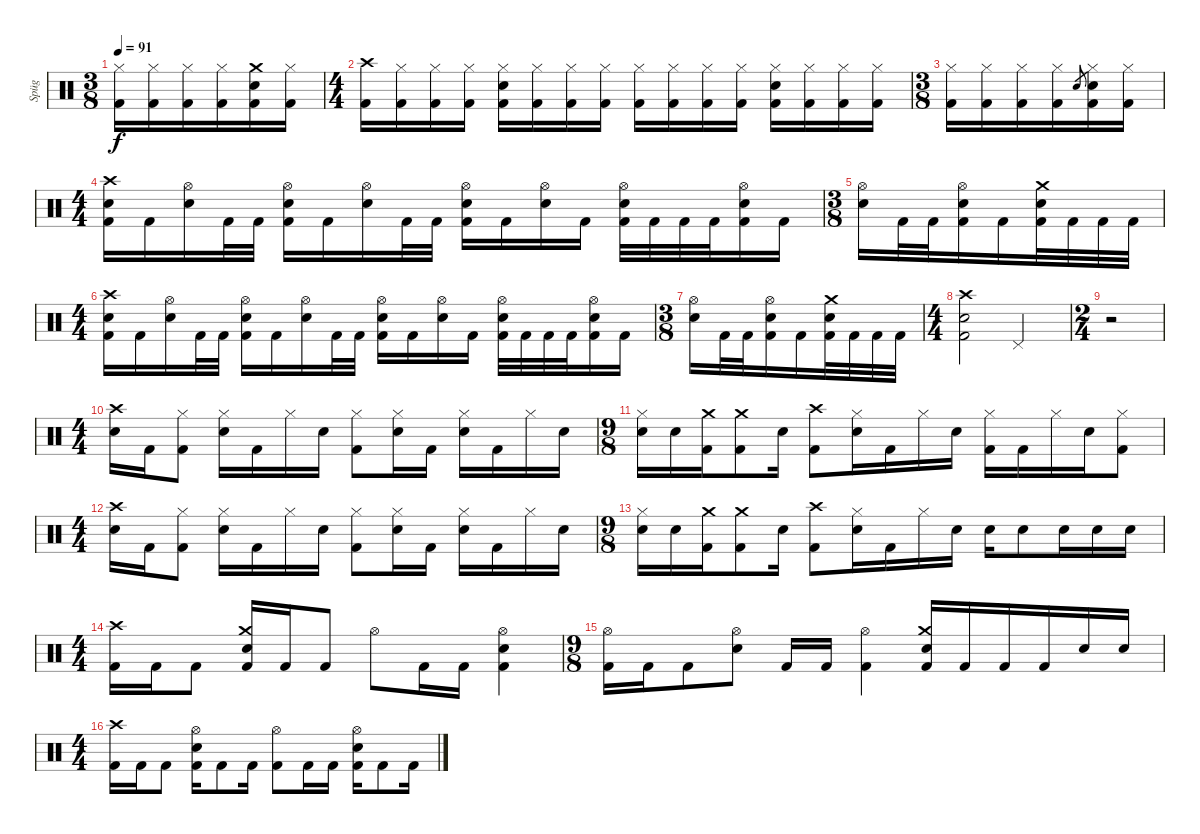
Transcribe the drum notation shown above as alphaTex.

\track ("Spüg" "Spüg") {instrument percussion}
\staff {score}
\articulation defaults
\ts (3 8)
\tempo 91
\clef neutral
\ks c
("Hi-Hat (closed)" "Kick (hit) 2").16{dy f} ("Hi-Hat (closed)" "Kick (hit) 2").16 ("Hi-Hat (closed)" "Kick (hit) 2").16 ("Hi-Hat (closed)" "Kick (hit) 2").16 ("Crash medium (hit)" "Electric Snare (hit)" "Kick (hit) 2").16 ("Hi-Hat (closed)" "Kick (hit) 2").16 |
\ts (4 4)
("Crash high (hit)" "Kick (hit) 2").16 ("Hi-Hat (closed)" "Kick (hit) 2").16 ("Hi-Hat (closed)" "Kick (hit) 2").16 ("Hi-Hat (closed)" "Kick (hit) 2").16 ("Hi-Hat (closed)" "Electric Snare (hit)" "Kick (hit) 2").16 ("Hi-Hat (closed)" "Kick (hit) 2").16 ("Hi-Hat (closed)" "Kick (hit) 2").16 ("Hi-Hat (closed)" "Kick (hit) 2").16 ("Hi-Hat (closed)" "Kick (hit) 2").16 ("Hi-Hat (closed)" "Kick (hit) 2").16 ("Hi-Hat (closed)" "Kick (hit) 2").16 ("Hi-Hat (closed)" "Kick (hit) 2").16 ("Hi-Hat (closed)" "Electric Snare (hit)" "Kick (hit) 2").16 ("Hi-Hat (closed)" "Kick (hit) 2").16 ("Hi-Hat (closed)" "Kick (hit) 2").16 ("Hi-Hat (closed)" "Kick (hit) 2").16 |
\ts (3 8)
("Hi-Hat (closed)" "Kick (hit) 2").16 ("Hi-Hat (closed)" "Kick (hit) 2").16 ("Hi-Hat (closed)" "Kick (hit) 2").16 ("Hi-Hat (closed)" "Kick (hit) 2").16 "Electric Snare (hit)".8{gr} ("Hi-Hat (closed)" "Electric Snare (hit)" "Kick (hit) 2").16 ("Hi-Hat (closed)" "Kick (hit) 2").16 |
\ts (4 4)
("Crash high (hit)" "Electric Snare (hit)" "Kick (hit) 2").16 "Kick (hit) 2".16 ("Hi-Hat (open)" "Electric Snare (hit)").16 "Kick (hit) 2".32 "Kick (hit) 2".32 ("Hi-Hat (open)" "Electric Snare (hit)" "Kick (hit) 2").16 "Kick (hit) 2".16 ("Hi-Hat (open)" "Electric Snare (hit)").16 "Kick (hit) 2".32 "Kick (hit) 2".32 ("Hi-Hat (open)" "Electric Snare (hit)" "Kick (hit) 2").16 "Kick (hit) 2".16 ("Hi-Hat (open)" "Electric Snare (hit)").16 "Kick (hit) 2".16 ("Hi-Hat (open)" "Electric Snare (hit)" "Kick (hit) 2").32 "Kick (hit) 2".32 "Kick (hit) 2".32 "Kick (hit) 2".32 ("Hi-Hat (open)" "Electric Snare (hit)" "Kick (hit) 2").16 "Kick (hit) 2".16 |
\ts (3 8)
("Hi-Hat (open)" "Electric Snare (hit)").16 "Kick (hit) 2".32 "Kick (hit) 2".32 ("Hi-Hat (open)" "Electric Snare (hit)" "Kick (hit) 2").16 "Kick (hit) 2".16 ("Crash medium (hit)" "Electric Snare (hit)" "Kick (hit) 2").32 "Kick (hit) 2".32 "Kick (hit) 2".32 "Kick (hit) 2".32 |
\ts (4 4)
("Crash high (hit)" "Electric Snare (hit)" "Kick (hit) 2").16 "Kick (hit) 2".16 ("Hi-Hat (open)" "Electric Snare (hit)").16 "Kick (hit) 2".32 "Kick (hit) 2".32 ("Hi-Hat (open)" "Electric Snare (hit)" "Kick (hit) 2").16 "Kick (hit) 2".16 ("Hi-Hat (open)" "Electric Snare (hit)").16 "Kick (hit) 2".32 "Kick (hit) 2".32 ("Hi-Hat (open)" "Electric Snare (hit)" "Kick (hit) 2").16 "Kick (hit) 2".16 ("Hi-Hat (open)" "Electric Snare (hit)").16 "Kick (hit) 2".16 ("Hi-Hat (open)" "Electric Snare (hit)" "Kick (hit) 2").32 "Kick (hit) 2".32 "Kick (hit) 2".32 "Kick (hit) 2".32 ("Hi-Hat (open)" "Electric Snare (hit)" "Kick (hit) 2").16 "Kick (hit) 2".16 |
\ts (3 8)
("Hi-Hat (open)" "Electric Snare (hit)").16 "Kick (hit) 2".32 "Kick (hit) 2".32 ("Hi-Hat (open)" "Electric Snare (hit)" "Kick (hit) 2").16 "Kick (hit) 2".16 ("Crash medium (hit)" "Electric Snare (hit)" "Kick (hit) 2").32 "Kick (hit) 2".32 "Kick (hit) 2".32 "Kick (hit) 2".32 |
\ts (4 4)
("Crash high (hit)" "Electric Snare (hit)" "Kick (hit) 2").2 "Pedal Hi-Hat (hit)".2 |
\ts (2 4)
r.2 |
\ts (4 4)
("Crash high (hit)" "Electric Snare (hit)").16 "Kick (hit) 2".16 ("Hi-Hat (closed)" "Kick (hit) 2").8 ("Hi-Hat (closed)" "Electric Snare (hit)").16 "Kick (hit) 2".16 "Hi-Hat (closed)".16 "Electric Snare (hit)".16 ("Hi-Hat (closed)" "Kick (hit) 2").8 ("Hi-Hat (closed)" "Electric Snare (hit)").16 "Kick (hit) 2".16 ("Hi-Hat (closed)" "Electric Snare (hit)").16 "Kick (hit) 2".16 "Hi-Hat (closed)".16 "Electric Snare (hit)".16 |
\ts (9 8)
("Hi-Hat (closed)" "Electric Snare (hit)").16 "Electric Snare (hit)".16 ("Crash medium (hit)" "Kick (hit) 2").16 ("Crash medium (hit)" "Kick (hit) 2").8 "Electric Snare (hit)".16 ("Crash high (hit)" "Kick (hit) 2").8 ("Hi-Hat (closed)" "Electric Snare (hit)").16 "Kick (hit) 2".16 "Hi-Hat (closed)".16 "Electric Snare (hit)".16 ("Hi-Hat (closed)" "Kick (hit) 2").16 "Kick (hit) 2".16 "Hi-Hat (closed)".16 "Electric Snare (hit)".16 ("Hi-Hat (closed)" "Kick (hit) 2").8 |
\ts (4 4)
("Crash high (hit)" "Electric Snare (hit)").16 "Kick (hit) 2".16 ("Hi-Hat (closed)" "Kick (hit) 2").8 ("Hi-Hat (closed)" "Electric Snare (hit)").16 "Kick (hit) 2".16 "Hi-Hat (closed)".16 "Electric Snare (hit)".16 ("Hi-Hat (closed)" "Kick (hit) 2").8 ("Hi-Hat (closed)" "Electric Snare (hit)").16 "Kick (hit) 2".16 ("Hi-Hat (closed)" "Electric Snare (hit)").16 "Kick (hit) 2".16 "Hi-Hat (closed)".16 "Electric Snare (hit)".16 |
\ts (9 8)
("Hi-Hat (closed)" "Electric Snare (hit)").16 "Electric Snare (hit)".16 ("Crash medium (hit)" "Kick (hit) 2").16 ("Crash medium (hit)" "Kick (hit) 2").8 "Electric Snare (hit)".16 ("Crash high (hit)" "Kick (hit) 2").8 ("Hi-Hat (closed)" "Electric Snare (hit)").16 "Kick (hit) 2".16 "Hi-Hat (closed)".16 "Electric Snare (hit)".16 "Electric Snare (hit)".16 "Electric Snare (hit)".8 "Electric Snare (hit)".16 "Electric Snare (hit)".16 "Electric Snare (hit)".16 |
\ts (4 4)
("Crash high (hit)" "Kick (hit) 2").16 "Kick (hit) 2".16 "Kick (hit) 2".8 ("Crash medium (hit)" "Electric Snare (hit)" "Kick (hit) 2").16 "Kick (hit) 2".16 "Kick (hit) 2".8 "Hi-Hat (open)".8 "Kick (hit) 2".16 "Kick (hit) 2".16 ("Hi-Hat (open)" "Electric Snare (hit)" "Kick (hit) 2").4 |
\ts (9 8)
("Hi-Hat (open)" "Kick (hit) 2").16 "Kick (hit) 2".16 "Kick (hit) 2".8 ("Hi-Hat (open)" "Electric Snare (hit)").8 "Kick (hit) 2".16 "Kick (hit) 2".16 ("Hi-Hat (open)" "Kick (hit) 2").4 ("Crash medium (hit)" "Electric Snare (hit)" "Kick (hit) 2").16 "Kick (hit) 2".16 "Kick (hit) 2".16 "Kick (hit) 2".16 "Electric Snare (hit)".16 "Electric Snare (hit)".16 |
\ts (4 4)
("Crash high (hit)" "Kick (hit) 2").16 "Kick (hit) 2".16 "Kick (hit) 2".8 ("Hi-Hat (open)" "Electric Snare (hit)" "Kick (hit) 2").16 "Kick (hit) 2".8 "Kick (hit) 2".16 ("Hi-Hat (open)" "Kick (hit) 2").8 "Kick (hit) 2".16 "Kick (hit) 2".16 ("Hi-Hat (open)" "Electric Snare (hit)" "Kick (hit) 2").16 "Kick (hit) 2".8 "Kick (hit) 2".16
